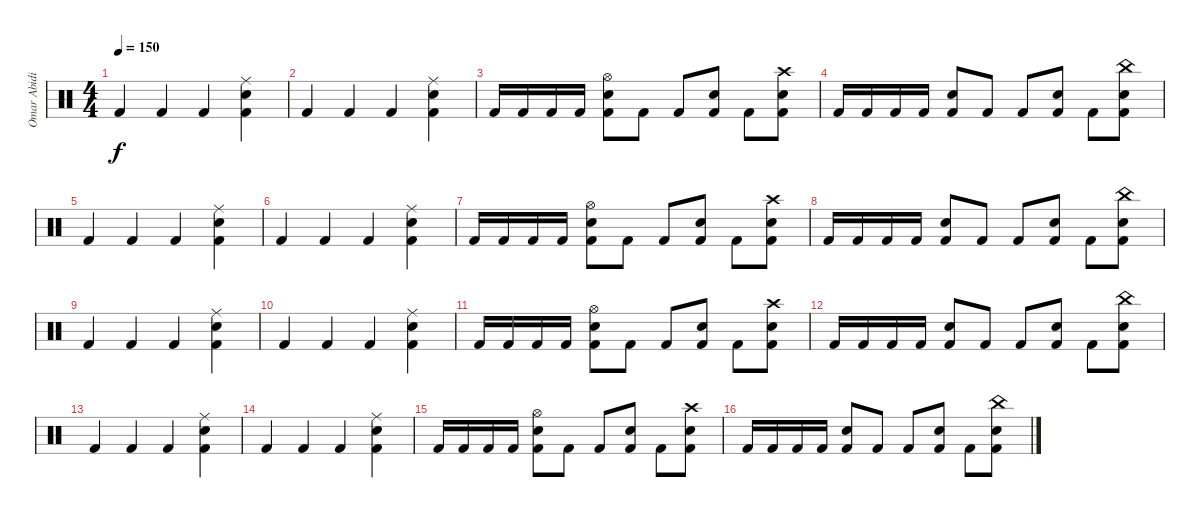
\track ("Omar Abidi" "Omar Abidi") {instrument percussion}
\staff {score}
\articulation defaults
\ts (4 4)
\tempo 150
\clef neutral
\ks c "Kick (hit) 2".4{dy f} "Kick (hit) 2".4 "Kick (hit) 2".4
("Snare (hit) 2" "Ride (middle)" "Kick (hit) 2").4 |
"Kick (hit) 2".4 "Kick (hit) 2".4 "Kick (hit) 2".4 ("Snare (hit) 2" "Ride (middle)" "Kick (hit) 2").4 |
"Kick (hit) 2".16 "Kick (hit) 2".16 "Kick (hit) 2".16 "Kick (hit) 2".16 ("Hi-Hat (open)" "Snare (hit) 2" "Kick (hit) 2").8 "Kick (hit) 2".8 "Kick (hit) 2".8 ("Snare (hit) 2" "Kick (hit) 2").8 "Kick (hit) 2".8 ("Crash high (hit)" "Snare (hit) 2" "Kick (hit) 2").8 |
"Kick (hit) 2".16 "Kick (hit) 2".16 "Kick (hit) 2".16 "Kick (hit) 2".16 ("Snare (hit) 2" "Kick (hit) 2").8 "Kick (hit) 2".8 "Kick (hit) 2".8 ("Snare (hit) 2" "Kick (hit) 2").8 "Kick (hit) 2".8 ("China (hit)" "Snare (hit) 2" "Kick (hit) 2").8 |
"Kick (hit) 2".4 "Kick (hit) 2".4 "Kick (hit) 2".4 ("Snare (hit) 2" "Ride (middle)" "Kick (hit) 2").4 |
"Kick (hit) 2".4 "Kick (hit) 2".4 "Kick (hit) 2".4 ("Snare (hit) 2" "Ride (middle)" "Kick (hit) 2").4 |
"Kick (hit) 2".16 "Kick (hit) 2".16 "Kick (hit) 2".16 "Kick (hit) 2".16 ("Hi-Hat (open)" "Snare (hit) 2" "Kick (hit) 2").8 "Kick (hit) 2".8 "Kick (hit) 2".8 ("Snare (hit) 2" "Kick (hit) 2").8 "Kick (hit) 2".8 ("Crash high (hit)" "Snare (hit) 2" "Kick (hit) 2").8 |
"Kick (hit) 2".16 "Kick (hit) 2".16 "Kick (hit) 2".16 "Kick (hit) 2".16 ("Snare (hit) 2" "Kick (hit) 2").8 "Kick (hit) 2".8 "Kick (hit) 2".8 ("Snare (hit) 2" "Kick (hit) 2").8 "Kick (hit) 2".8 ("China (hit)" "Snare (hit) 2" "Kick (hit) 2").8 |
"Kick (hit) 2".4 "Kick (hit) 2".4 "Kick (hit) 2".4 ("Snare (hit) 2" "Ride (middle)" "Kick (hit) 2").4 |
"Kick (hit) 2".4 "Kick (hit) 2".4 "Kick (hit) 2".4 ("Snare (hit) 2" "Ride (middle)" "Kick (hit) 2").4 |
"Kick (hit) 2".16 "Kick (hit) 2".16 "Kick (hit) 2".16 "Kick (hit) 2".16 ("Hi-Hat (open)" "Snare (hit) 2" "Kick (hit) 2").8 "Kick (hit) 2".8 "Kick (hit) 2".8 ("Snare (hit) 2" "Kick (hit) 2").8 "Kick (hit) 2".8 ("Crash high (hit)" "Snare (hit) 2" "Kick (hit) 2").8 |
"Kick (hit) 2".16 "Kick (hit) 2".16 "Kick (hit) 2".16 "Kick (hit) 2".16 ("Snare (hit) 2" "Kick (hit) 2").8 "Kick (hit) 2".8 "Kick (hit) 2".8 ("Snare (hit) 2" "Kick (hit) 2").8 "Kick (hit) 2".8 ("China (hit)" "Snare (hit) 2" "Kick (hit) 2").8 |
"Kick (hit) 2".4 "Kick (hit) 2".4 "Kick (hit) 2".4 ("Snare (hit) 2" "Ride (middle)" "Kick (hit) 2").4 |
"Kick (hit) 2".4 "Kick (hit) 2".4 "Kick (hit) 2".4 ("Snare (hit) 2" "Ride (middle)" "Kick (hit) 2").4 |
"Kick (hit) 2".16 "Kick (hit) 2".16 "Kick (hit) 2".16 "Kick (hit) 2".16 ("Hi-Hat (open)" "Snare (hit) 2" "Kick (hit) 2").8 "Kick (hit) 2".8 "Kick (hit) 2".8 ("Snare (hit) 2" "Kick (hit) 2").8 "Kick (hit) 2".8 ("Crash high (hit)" "Snare (hit) 2" "Kick (hit) 2").8 |
"Kick (hit) 2".16 "Kick (hit) 2".16 "Kick (hit) 2".16 "Kick (hit) 2".16 ("Snare (hit) 2" "Kick (hit) 2").8 "Kick (hit) 2".8 "Kick (hit) 2".8 ("Snare (hit) 2" "Kick (hit) 2").8 "Kick (hit) 2".8 ("China (hit)" "Snare (hit) 2" "Kick (hit) 2").8
